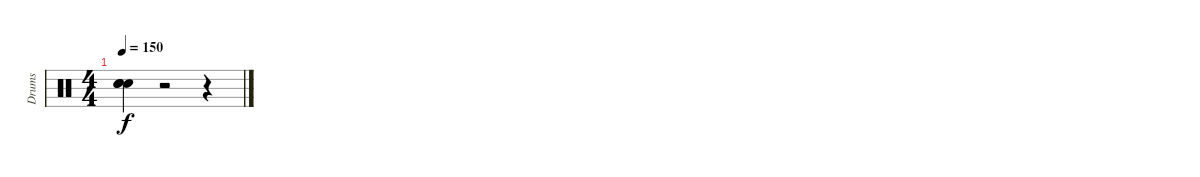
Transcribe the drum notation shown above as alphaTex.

\track ("Drums" "Drums") {instrument percussion}
\staff {score}
\articulation defaults
\ts (4 4)
\tempo 150
\clef neutral
\ks c
("Snare (hit)"{t} "Snare (hit)"{t} "Snare (hit)"{t}).4{dy f} r.2 r.4
